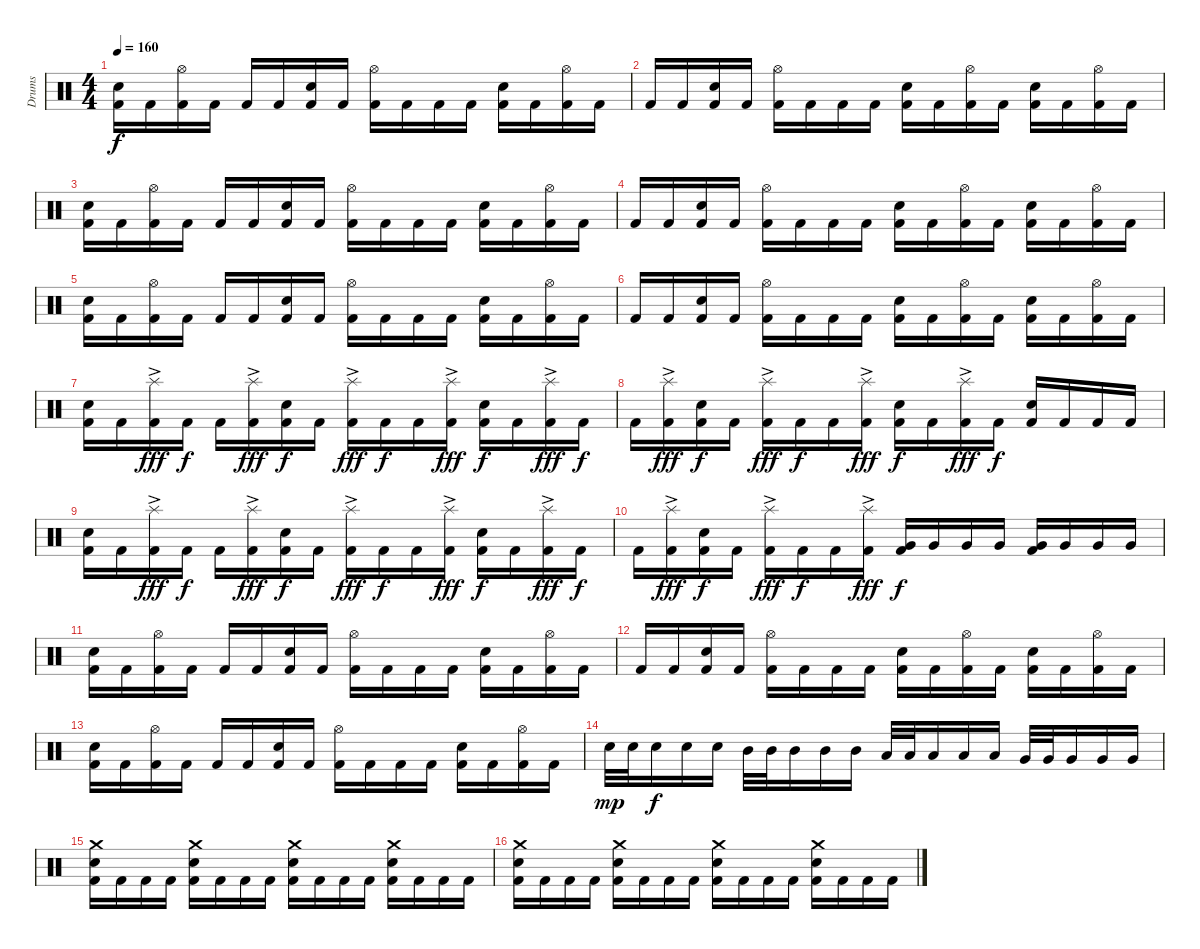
\track ("Drums" "Drums") {instrument percussion}
\staff {score}
\articulation defaults
\ts (4 4)
\tempo 160
\clef neutral
\ks c
("Snare (hit) 2" "Kick (hit) 2").16{dy f} "Kick (hit) 2".16 ("Hi-Hat (open)" "Kick (hit) 2").16 "Kick (hit) 2".16 "Kick (hit) 2".16 "Kick (hit) 2".16 ("Snare (hit) 2" "Kick (hit) 2").16 "Kick (hit) 2".16 ("Hi-Hat (open)" "Kick (hit) 2").16 "Kick (hit) 2".16 "Kick (hit) 2".16 "Kick (hit) 2".16 ("Snare (hit) 2" "Kick (hit) 2").16 "Kick (hit) 2".16 ("Hi-Hat (open)" "Kick (hit) 2").16 "Kick (hit) 2".16 |
"Kick (hit) 2".16 "Kick (hit) 2".16 ("Snare (hit) 2" "Kick (hit) 2").16 "Kick (hit) 2".16 ("Hi-Hat (open)" "Kick (hit) 2").16 "Kick (hit) 2".16 "Kick (hit) 2".16 "Kick (hit) 2".16 ("Snare (hit) 2" "Kick (hit) 2").16 "Kick (hit) 2".16 ("Hi-Hat (open)" "Kick (hit) 2").16 "Kick (hit) 2".16 ("Snare (hit) 2" "Kick (hit) 2").16 "Kick (hit) 2".16 ("Hi-Hat (open)" "Kick (hit) 2").16 "Kick (hit) 2".16 |
("Snare (hit) 2" "Kick (hit) 2").16 "Kick (hit) 2".16 ("Hi-Hat (open)" "Kick (hit) 2").16 "Kick (hit) 2".16 "Kick (hit) 2".16 "Kick (hit) 2".16 ("Snare (hit) 2" "Kick (hit) 2").16 "Kick (hit) 2".16 ("Hi-Hat (open)" "Kick (hit) 2").16 "Kick (hit) 2".16 "Kick (hit) 2".16 "Kick (hit) 2".16 ("Snare (hit) 2" "Kick (hit) 2").16 "Kick (hit) 2".16 ("Hi-Hat (open)" "Kick (hit) 2").16 "Kick (hit) 2".16 |
"Kick (hit) 2".16 "Kick (hit) 2".16 ("Snare (hit) 2" "Kick (hit) 2").16 "Kick (hit) 2".16 ("Hi-Hat (open)" "Kick (hit) 2").16 "Kick (hit) 2".16 "Kick (hit) 2".16 "Kick (hit) 2".16 ("Snare (hit) 2" "Kick (hit) 2").16 "Kick (hit) 2".16 ("Hi-Hat (open)" "Kick (hit) 2").16 "Kick (hit) 2".16 ("Snare (hit) 2" "Kick (hit) 2").16 "Kick (hit) 2".16 ("Hi-Hat (open)" "Kick (hit) 2").16 "Kick (hit) 2".16 |
("Snare (hit) 2" "Kick (hit) 2").16 "Kick (hit) 2".16 ("Hi-Hat (open)" "Kick (hit) 2").16 "Kick (hit) 2".16 "Kick (hit) 2".16 "Kick (hit) 2".16 ("Snare (hit) 2" "Kick (hit) 2").16 "Kick (hit) 2".16 ("Hi-Hat (open)" "Kick (hit) 2").16 "Kick (hit) 2".16 "Kick (hit) 2".16 "Kick (hit) 2".16 ("Snare (hit) 2" "Kick (hit) 2").16 "Kick (hit) 2".16 ("Hi-Hat (open)" "Kick (hit) 2").16 "Kick (hit) 2".16 |
"Kick (hit) 2".16 "Kick (hit) 2".16 ("Snare (hit) 2" "Kick (hit) 2").16 "Kick (hit) 2".16 ("Hi-Hat (open)" "Kick (hit) 2").16 "Kick (hit) 2".16 "Kick (hit) 2".16 "Kick (hit) 2".16 ("Snare (hit) 2" "Kick (hit) 2").16 "Kick (hit) 2".16 ("Hi-Hat (open)" "Kick (hit) 2").16 "Kick (hit) 2".16 ("Snare (hit) 2" "Kick (hit) 2").16 "Kick (hit) 2".16 ("Hi-Hat (open)" "Kick (hit) 2").16 "Kick (hit) 2".16 |
("Snare (hit) 2" "Kick (hit) 2").16 "Kick (hit) 2".16 ("Splash (hit)"{ac} "Kick (hit) 2").16{dy fff} "Kick (hit) 2".16{dy f} "Kick (hit) 2".16 ("Splash (hit)"{ac} "Kick (hit) 2").16{dy fff} ("Snare (hit) 2" "Kick (hit) 2").16{dy f} "Kick (hit) 2".16 ("Splash (hit)"{ac} "Kick (hit) 2").16{dy fff} "Kick (hit) 2".16{dy f} "Kick (hit) 2".16 ("Splash (hit)"{ac} "Kick (hit) 2").16{dy fff} ("Snare (hit) 2" "Kick (hit) 2").16{dy f} "Kick (hit) 2".16 ("Splash (hit)"{ac} "Kick (hit) 2").16{dy fff} "Kick (hit) 2".16{dy f} |
"Kick (hit) 2".16 ("Splash (hit)"{ac} "Kick (hit) 2").16{dy fff} ("Snare (hit) 2" "Kick (hit) 2").16{dy f} "Kick (hit) 2".16 ("Splash (hit)"{ac} "Kick (hit) 2").16{dy fff} "Kick (hit) 2".16{dy f} "Kick (hit) 2".16 ("Splash (hit)"{ac} "Kick (hit) 2").16{dy fff} ("Snare (hit) 2" "Kick (hit) 2").16{dy f} "Kick (hit) 2".16 ("Splash (hit)"{ac} "Kick (hit) 2").16{dy fff} "Kick (hit) 2".16{dy f} ("Snare (hit) 2" "Kick (hit) 2").16 "Kick (hit) 2".16 "Kick (hit) 2".16 "Kick (hit) 2".16 |
("Snare (hit) 2" "Kick (hit) 2").16 "Kick (hit) 2".16 ("Splash (hit)"{ac} "Kick (hit) 2").16{dy fff} "Kick (hit) 2".16{dy f} "Kick (hit) 2".16 ("Splash (hit)"{ac} "Kick (hit) 2").16{dy fff} ("Snare (hit) 2" "Kick (hit) 2").16{dy f} "Kick (hit) 2".16 ("Splash (hit)"{ac} "Kick (hit) 2").16{dy fff} "Kick (hit) 2".16{dy f} "Kick (hit) 2".16 ("Splash (hit)"{ac} "Kick (hit) 2").16{dy fff} ("Snare (hit) 2" "Kick (hit) 2").16{dy f} "Kick (hit) 2".16 ("Splash (hit)"{ac} "Kick (hit) 2").16{dy fff} "Kick (hit) 2".16{dy f} |
"Kick (hit) 2".16 ("Splash (hit)"{ac} "Kick (hit) 2").16{dy fff} ("Snare (hit) 2" "Kick (hit) 2").16{dy f} "Kick (hit) 2".16 ("Splash (hit)"{ac} "Kick (hit) 2").16{dy fff} "Kick (hit) 2".16{dy f} "Kick (hit) 2".16 ("Splash (hit)"{ac} "Kick (hit) 2").16{dy fff} ("Very Low Tom (hit)" "Kick (hit) 2").16{dy f} "Very Low Tom (hit)".16 "Very Low Tom (hit)".16 "Very Low Tom (hit)".16 ("Very Low Tom (hit)" "Kick (hit) 2").16 "Very Low Tom (hit)".16 "Very Low Tom (hit)".16 "Very Low Tom (hit)".16 |
("Snare (hit) 2" "Kick (hit) 2").16 "Kick (hit) 2".16 ("Hi-Hat (open)" "Kick (hit) 2").16 "Kick (hit) 2".16 "Kick (hit) 2".16 "Kick (hit) 2".16 ("Snare (hit) 2" "Kick (hit) 2").16 "Kick (hit) 2".16 ("Hi-Hat (open)" "Kick (hit) 2").16 "Kick (hit) 2".16 "Kick (hit) 2".16 "Kick (hit) 2".16 ("Snare (hit) 2" "Kick (hit) 2").16 "Kick (hit) 2".16 ("Hi-Hat (open)" "Kick (hit) 2").16 "Kick (hit) 2".16 |
"Kick (hit) 2".16 "Kick (hit) 2".16 ("Snare (hit) 2" "Kick (hit) 2").16 "Kick (hit) 2".16 ("Hi-Hat (open)" "Kick (hit) 2").16 "Kick (hit) 2".16 "Kick (hit) 2".16 "Kick (hit) 2".16 ("Snare (hit) 2" "Kick (hit) 2").16 "Kick (hit) 2".16 ("Hi-Hat (open)" "Kick (hit) 2").16 "Kick (hit) 2".16 ("Snare (hit) 2" "Kick (hit) 2").16 "Kick (hit) 2".16 ("Hi-Hat (open)" "Kick (hit) 2").16 "Kick (hit) 2".16 |
("Snare (hit) 2" "Kick (hit) 2").16 "Kick (hit) 2".16 ("Hi-Hat (open)" "Kick (hit) 2").16 "Kick (hit) 2".16 "Kick (hit) 2".16 "Kick (hit) 2".16 ("Snare (hit) 2" "Kick (hit) 2").16 "Kick (hit) 2".16 ("Hi-Hat (open)" "Kick (hit) 2").16 "Kick (hit) 2".16 "Kick (hit) 2".16 "Kick (hit) 2".16 ("Snare (hit) 2" "Kick (hit) 2").16 "Kick (hit) 2".16 ("Hi-Hat (open)" "Kick (hit) 2").16 "Kick (hit) 2".16 |
"Snare (hit) 2".32{dy mp} "Snare (hit) 2".32 "Snare (hit) 2".16{dy f} "Snare (hit) 2".16 "Snare (hit) 2".16 "Mid Tom (hit)".32 "Mid Tom (hit)".32 "Mid Tom (hit)".16 "Mid Tom (hit)".16 "Mid Tom (hit)".16 "Low Tom (hit)".32 "Low Tom (hit)".32 "Low Tom (hit)".16 "Low Tom (hit)".16 "Low Tom (hit)".16 "Very Low Tom (hit)".32 "Very Low Tom (hit)".32 "Very Low Tom (hit)".16 "Very Low Tom (hit)".16 "Very Low Tom (hit)".16 |
("Crash medium (hit)" "Snare (hit) 2" "Kick (hit) 2").16 "Kick (hit) 2".16 "Kick (hit) 2".16 "Kick (hit) 2".16 ("Crash medium (hit)" "Snare (hit) 2" "Kick (hit) 2").16 "Kick (hit) 2".16 "Kick (hit) 2".16 "Kick (hit) 2".16 ("Crash medium (hit)" "Snare (hit) 2" "Kick (hit) 2").16 "Kick (hit) 2".16 "Kick (hit) 2".16 "Kick (hit) 2".16 ("Crash medium (hit)" "Snare (hit) 2" "Kick (hit) 2").16 "Kick (hit) 2".16 "Kick (hit) 2".16 "Kick (hit) 2".16 |
("Crash medium (hit)" "Snare (hit) 2" "Kick (hit) 2").16 "Kick (hit) 2".16 "Kick (hit) 2".16 "Kick (hit) 2".16 ("Crash medium (hit)" "Snare (hit) 2" "Kick (hit) 2").16 "Kick (hit) 2".16 "Kick (hit) 2".16 "Kick (hit) 2".16 ("Crash medium (hit)" "Snare (hit) 2" "Kick (hit) 2").16 "Kick (hit) 2".16 "Kick (hit) 2".16 "Kick (hit) 2".16 ("Crash medium (hit)" "Snare (hit) 2" "Kick (hit) 2").16 "Kick (hit) 2".16 "Kick (hit) 2".16 "Kick (hit) 2".16
